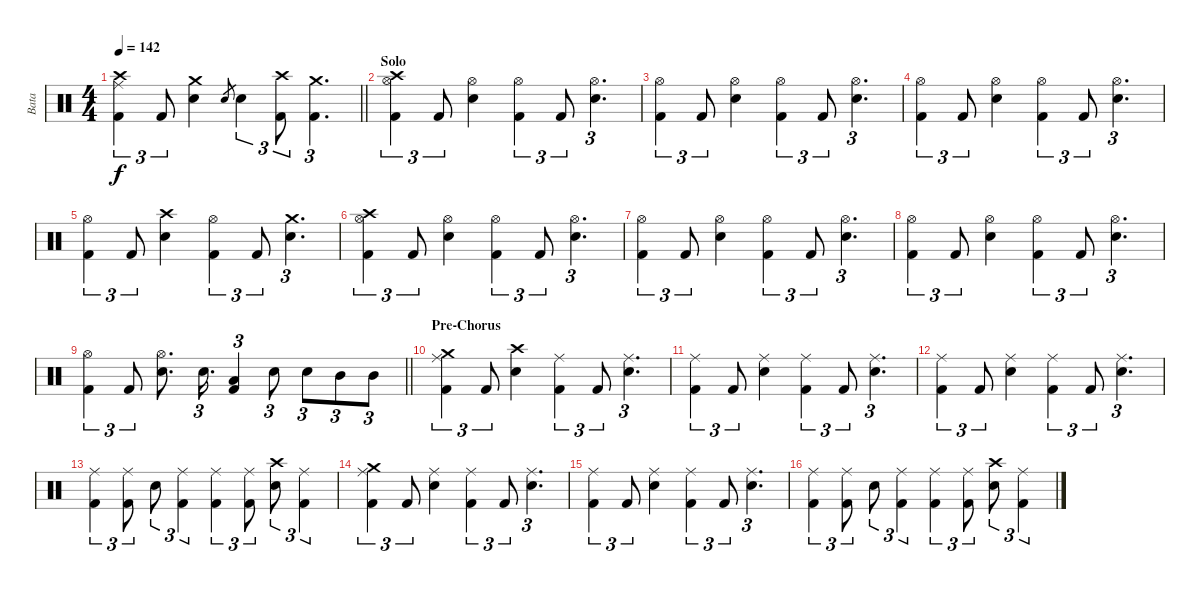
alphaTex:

\track ("Bata" "Bata") {instrument percussion}
\staff {score}
\articulation defaults
\ts (4 4)
\tempo 142
\clef neutral
\barLineRight lightlight
\ks c
("Crash high (hit)" "Ride (middle)" "Kick (hit) 2").4{tu (3 2) dy f} "Kick (hit) 2".8{tu (3 2)} ("Crash medium (hit)" "Electric Snare (hit)").4 "Electric Snare (hit)".8{gr} "Electric Snare (hit)".4{tu (3 2)} ("Crash high (hit)" "Kick (hit) 2").8{tu (3 2)} ("Crash medium (hit)" "Kick (hit) 2").4{d tu (3 2)} |
\section ("" "Solo")
("Crash high (hit)" "Hi-Hat (open)" "Kick (hit) 2").4{tu (3 2)} "Kick (hit) 2".8{tu (3 2)} ("Hi-Hat (open)" "Electric Snare (hit)").4 ("Hi-Hat (open)" "Kick (hit) 2").4{tu (3 2)} "Kick (hit) 2".8{tu (3 2)} ("Hi-Hat (open)" "Electric Snare (hit)").4{d tu (3 2)} |
("Hi-Hat (open)" "Kick (hit) 2").4{tu (3 2)} "Kick (hit) 2".8{tu (3 2)} ("Hi-Hat (open)" "Electric Snare (hit)").4 ("Hi-Hat (open)" "Kick (hit) 2").4{tu (3 2)} "Kick (hit) 2".8{tu (3 2)} ("Hi-Hat (open)" "Electric Snare (hit)").4{d tu (3 2)} |
("Hi-Hat (open)" "Kick (hit) 2").4{tu (3 2)} "Kick (hit) 2".8{tu (3 2)} ("Hi-Hat (open)" "Electric Snare (hit)").4 ("Hi-Hat (open)" "Kick (hit) 2").4{tu (3 2)} "Kick (hit) 2".8{tu (3 2)} ("Hi-Hat (open)" "Electric Snare (hit)").4{d tu (3 2)} |
("Hi-Hat (open)" "Kick (hit) 2").4{tu (3 2)} "Kick (hit) 2".8{tu (3 2)} ("Crash high (hit)" "Electric Snare (hit)").4 ("Hi-Hat (open)" "Kick (hit) 2").4{tu (3 2)} "Kick (hit) 2".8{tu (3 2)} ("Crash medium (hit)" "Electric Snare (hit)").4{d tu (3 2)} |
("Crash high (hit)" "Hi-Hat (open)" "Kick (hit) 2").4{tu (3 2)} "Kick (hit) 2".8{tu (3 2)} ("Hi-Hat (open)" "Electric Snare (hit)").4 ("Hi-Hat (open)" "Kick (hit) 2").4{tu (3 2)} "Kick (hit) 2".8{tu (3 2)} ("Hi-Hat (open)" "Electric Snare (hit)").4{d tu (3 2)} |
("Hi-Hat (open)" "Kick (hit) 2").4{tu (3 2)} "Kick (hit) 2".8{tu (3 2)} ("Hi-Hat (open)" "Electric Snare (hit)").4 ("Hi-Hat (open)" "Kick (hit) 2").4{tu (3 2)} "Kick (hit) 2".8{tu (3 2)} ("Hi-Hat (open)" "Electric Snare (hit)").4{d tu (3 2)} |
("Hi-Hat (open)" "Kick (hit) 2").4{tu (3 2)} "Kick (hit) 2".8{tu (3 2)} ("Hi-Hat (open)" "Electric Snare (hit)").4 ("Hi-Hat (open)" "Kick (hit) 2").4{tu (3 2)} "Kick (hit) 2".8{tu (3 2)} ("Hi-Hat (open)" "Electric Snare (hit)").4{d tu (3 2)} |
\barLineRight lightlight
("Hi-Hat (open)" "Kick (hit) 2").4{tu (3 2)} "Kick (hit) 2".8{tu (3 2)} ("Hi-Hat (open)" "Electric Snare (hit)").8{d} "Electric Snare (hit)".16{d tu (3 2)} ("Low Tom (hit)" "Kick (hit) 2").4{tu (3 2)} "Electric Snare (hit)".8{tu (3 2)} "Electric Snare (hit)".8{tu (3 2)} "Mid Tom (hit)".8{tu (3 2)} "Mid Tom (hit)".8{tu (3 2)} |
\section ("" "Pre-Chorus")
("Crash medium (hit)" "Ride (middle)" "Kick (hit) 2").4{tu (3 2)} "Kick (hit) 2".8{tu (3 2)} ("Crash high (hit)" "Electric Snare (hit)").4 ("Ride (middle)" "Kick (hit) 2").4{tu (3 2)} "Kick (hit) 2".8{tu (3 2)} ("Ride (middle)" "Electric Snare (hit)").4{d tu (3 2)} |
("Ride (middle)" "Kick (hit) 2").4{tu (3 2)} "Kick (hit) 2".8{tu (3 2)} ("Ride (middle)" "Electric Snare (hit)").4 ("Ride (middle)" "Kick (hit) 2").4{tu (3 2)} "Kick (hit) 2".8{tu (3 2)} ("Ride (middle)" "Electric Snare (hit)").4{d tu (3 2)} |
("Ride (middle)" "Kick (hit) 2").4{tu (3 2)} "Kick (hit) 2".8{tu (3 2)} ("Ride (middle)" "Electric Snare (hit)").4 ("Ride (middle)" "Kick (hit) 2").4{tu (3 2)} "Kick (hit) 2".8{tu (3 2)} ("Ride (middle)" "Electric Snare (hit)").4{d tu (3 2)} |
("Ride (middle)" "Kick (hit) 2").4{tu (3 2)} ("Ride (middle)" "Kick (hit) 2").8{tu (3 2)} "Electric Snare (hit)".8{tu (3 2)} ("Ride (middle)" "Kick (hit) 2").4{tu (3 2)} ("Ride (middle)" "Kick (hit) 2").4{tu (3 2)} ("Ride (middle)" "Kick (hit) 2").8{tu (3 2)} ("Crash high (hit)" "Electric Snare (hit)").8{tu (3 2)} ("Ride (middle)" "Kick (hit) 2").4{tu (3 2)} |
("Crash medium (hit)" "Ride (middle)" "Kick (hit) 2").4{tu (3 2)} "Kick (hit) 2".8{tu (3 2)} ("Ride (middle)" "Electric Snare (hit)").4 ("Ride (middle)" "Kick (hit) 2").4{tu (3 2)} "Kick (hit) 2".8{tu (3 2)} ("Ride (middle)" "Electric Snare (hit)").4{d tu (3 2)} |
("Ride (middle)" "Kick (hit) 2").4{tu (3 2)} "Kick (hit) 2".8{tu (3 2)} ("Ride (middle)" "Electric Snare (hit)").4 ("Ride (middle)" "Kick (hit) 2").4{tu (3 2)} "Kick (hit) 2".8{tu (3 2)} ("Ride (middle)" "Electric Snare (hit)").4{d tu (3 2)} |
("Ride (middle)" "Kick (hit) 2").4{tu (3 2)} ("Ride (middle)" "Kick (hit) 2").8{tu (3 2)} "Electric Snare (hit)".8{tu (3 2)} ("Ride (middle)" "Kick (hit) 2").4{tu (3 2)} ("Ride (middle)" "Kick (hit) 2").4{tu (3 2)} ("Ride (middle)" "Kick (hit) 2").8{tu (3 2)} ("Crash high (hit)" "Electric Snare (hit)").8{tu (3 2)} ("Ride (middle)" "Kick (hit) 2").4{tu (3 2)}
